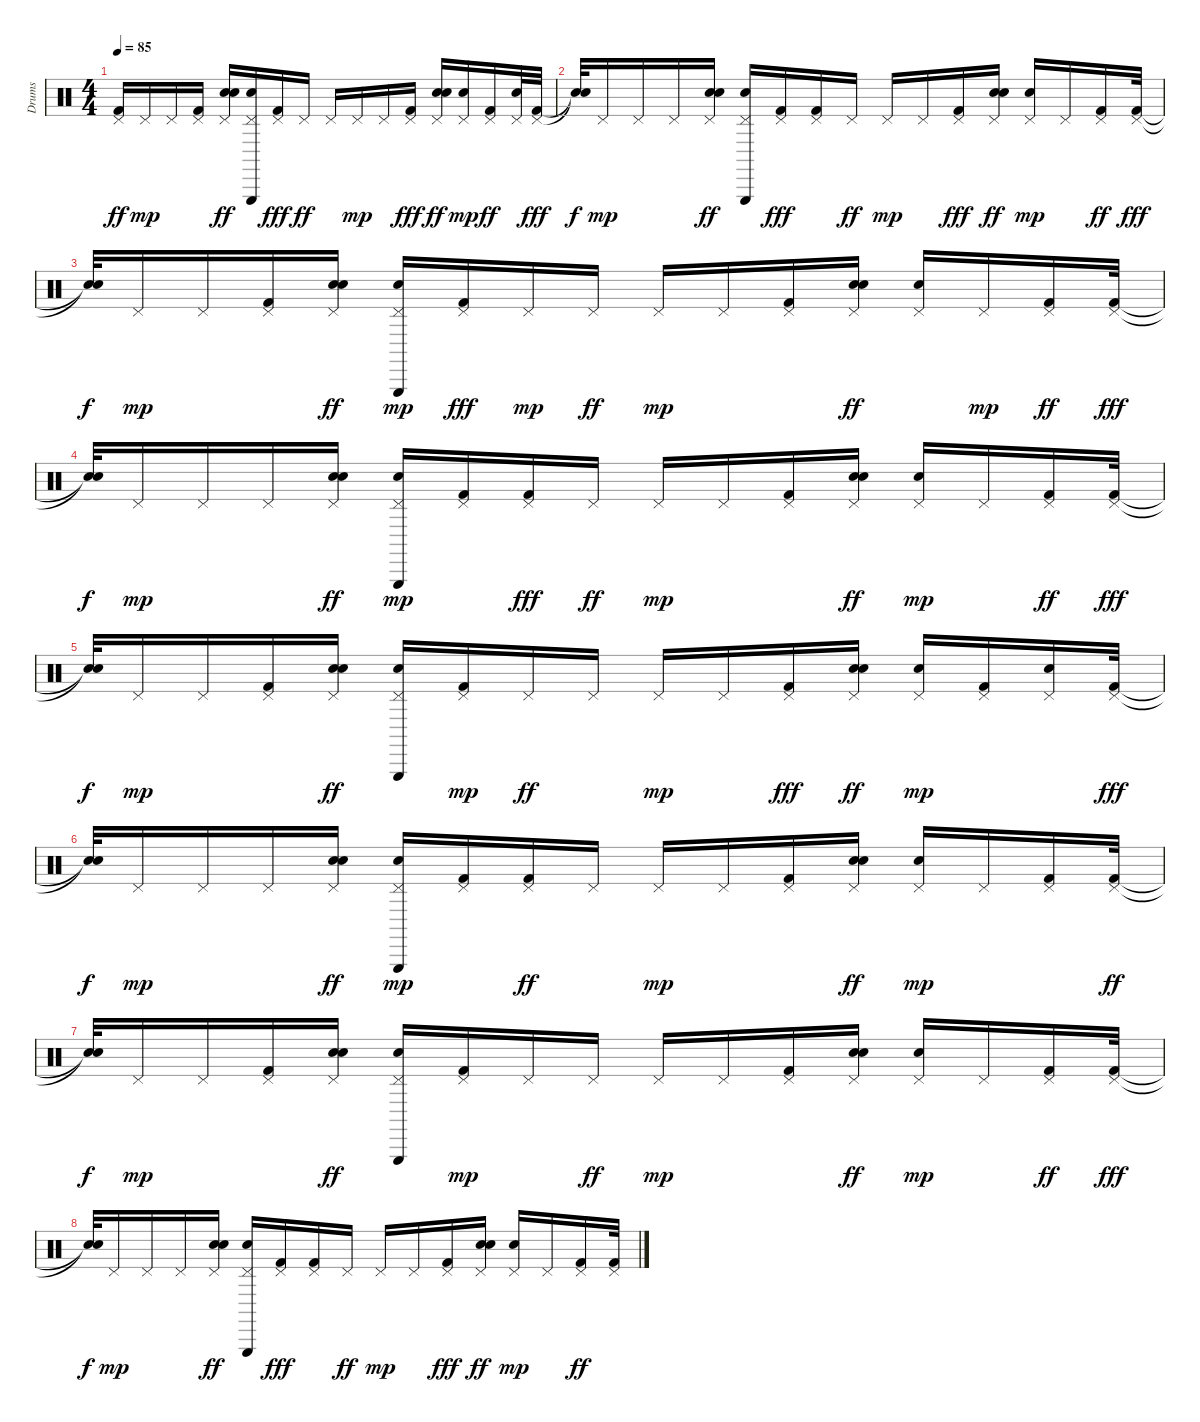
\track ("Drums" "Drums") {instrument percussion}
\staff {score}
\articulation defaults
\ts (4 4)
\tempo 85
\clef neutral
\ks c
("Kick (hit) 2" "Pedal Hi-Hat (hit)").16{dy ff} "Pedal Hi-Hat (hit)".16{dy mp} "Pedal Hi-Hat (hit)".16 ("Kick (hit) 2" "Pedal Hi-Hat (hit)").16 ("Pedal Hi-Hat (hit)" "Snare (hit) 2" "Hand Clap (hit)").16{dy ff} ("Triangle (hit)" "Pedal Hi-Hat (hit)" "Snare (hit) 2").16 ("Pedal Hi-Hat (hit)" "Kick (hit) 2").16{dy fff} "Pedal Hi-Hat (hit)".16{dy ff} "Pedal Hi-Hat (hit)".16 "Pedal Hi-Hat (hit)".16{dy mp} "Pedal Hi-Hat (hit)".16 ("Pedal Hi-Hat (hit)" "Kick (hit) 2").16{dy fff} ("Hand Clap (hit)" "Snare (hit) 2" "Pedal Hi-Hat (hit)").16{dy ff} ("Snare (hit) 2" "Pedal Hi-Hat (hit)").16{dy mp} ("Pedal Hi-Hat (hit)" "Kick (hit) 2").16{dy ff} ("Pedal Hi-Hat (hit)" "Snare (hit) 2").32 ("Pedal Hi-Hat (hit)" "Kick (hit) 2").32{dy fff} |
("Snare (hit)"{t} "Snare (hit)"{t}).32{dy f} "Pedal Hi-Hat (hit)".16{dy mp} "Pedal Hi-Hat (hit)".16 "Pedal Hi-Hat (hit)".16 ("Pedal Hi-Hat (hit)" "Hand Clap (hit)" "Snare (hit) 2").16{dy ff} ("Pedal Hi-Hat (hit)" "Triangle (hit)" "Snare (hit) 2").16 ("Pedal Hi-Hat (hit)" "Kick (hit) 2").16{dy fff} ("Pedal Hi-Hat (hit)" "Kick (hit) 2").16 "Pedal Hi-Hat (hit)".16{dy ff} "Pedal Hi-Hat (hit)".16{dy mp} "Pedal Hi-Hat (hit)".16 ("Pedal Hi-Hat (hit)" "Kick (hit) 2").16{dy fff} ("Snare (hit) 2" "Pedal Hi-Hat (hit)" "Hand Clap (hit)").16{dy ff} ("Snare (hit) 2" "Pedal Hi-Hat (hit)").16{dy mp} "Pedal Hi-Hat (hit)".16 ("Pedal Hi-Hat (hit)" "Kick (hit) 2").16{dy ff} ("Pedal Hi-Hat (hit)" "Kick (hit) 2").32{dy fff} |
("Snare (hit)"{t} "Snare (hit)"{t}).32{dy f} "Pedal Hi-Hat (hit)".16{dy mp} "Pedal Hi-Hat (hit)".16 ("Kick (hit) 2" "Pedal Hi-Hat (hit)").16 ("Hand Clap (hit)" "Pedal Hi-Hat (hit)" "Snare (hit) 2").16{dy ff} ("Triangle (hit)" "Snare (hit) 2" "Pedal Hi-Hat (hit)").16{dy mp} ("Pedal Hi-Hat (hit)" "Kick (hit) 2").16{dy fff} "Pedal Hi-Hat (hit)".16{dy mp} "Pedal Hi-Hat (hit)".16{dy ff} "Pedal Hi-Hat (hit)".16{dy mp} "Pedal Hi-Hat (hit)".16 ("Kick (hit) 2" "Pedal Hi-Hat (hit)").16 ("Hand Clap (hit)" "Pedal Hi-Hat (hit)" "Snare (hit) 2").16{dy ff} ("Pedal Hi-Hat (hit)" "Snare (hit) 2").16 "Pedal Hi-Hat (hit)".16{dy mp} ("Pedal Hi-Hat (hit)" "Kick (hit) 2").16{dy ff} ("Pedal Hi-Hat (hit)" "Kick (hit) 2").32{dy fff} |
("Snare (hit)"{t} "Snare (hit)"{t}).32{dy f} "Pedal Hi-Hat (hit)".16{dy mp} "Pedal Hi-Hat (hit)".16 "Pedal Hi-Hat (hit)".16 ("Snare (hit) 2" "Pedal Hi-Hat (hit)" "Hand Clap (hit)").16{dy ff} ("Snare (hit) 2" "Pedal Hi-Hat (hit)" "Triangle (hit)").16{dy mp} ("Kick (hit) 2" "Pedal Hi-Hat (hit)").16 ("Pedal Hi-Hat (hit)" "Kick (hit) 2").16{dy fff} "Pedal Hi-Hat (hit)".16{dy ff} "Pedal Hi-Hat (hit)".16{dy mp} "Pedal Hi-Hat (hit)".16 ("Kick (hit) 2" "Pedal Hi-Hat (hit)").16 ("Pedal Hi-Hat (hit)" "Snare (hit) 2" "Hand Clap (hit)").16{dy ff} ("Snare (hit) 2" "Pedal Hi-Hat (hit)").16{dy mp} "Pedal Hi-Hat (hit)".16 ("Pedal Hi-Hat (hit)" "Kick (hit) 2").16{dy ff} ("Pedal Hi-Hat (hit)" "Kick (hit) 2").32{dy fff} |
("Snare (hit)"{t} "Snare (hit)"{t}).32{dy f} "Pedal Hi-Hat (hit)".16{dy mp} "Pedal Hi-Hat (hit)".16 ("Kick (hit) 2" "Pedal Hi-Hat (hit)").16 ("Snare (hit) 2" "Pedal Hi-Hat (hit)" "Hand Clap (hit)").16{dy ff} ("Triangle (hit)" "Pedal Hi-Hat (hit)" "Snare (hit) 2").16 ("Kick (hit) 2" "Pedal Hi-Hat (hit)").16{dy mp} "Pedal Hi-Hat (hit)".16{dy ff} "Pedal Hi-Hat (hit)".16 "Pedal Hi-Hat (hit)".16{dy mp} "Pedal Hi-Hat (hit)".16 ("Pedal Hi-Hat (hit)" "Kick (hit) 2").16{dy fff} ("Hand Clap (hit)" "Snare (hit) 2" "Pedal Hi-Hat (hit)").16{dy ff} ("Snare (hit) 2" "Pedal Hi-Hat (hit)").16{dy mp} ("Kick (hit) 2" "Pedal Hi-Hat (hit)").16 ("Snare (hit) 2" "Pedal Hi-Hat (hit)").16 ("Pedal Hi-Hat (hit)" "Kick (hit) 2").32{dy fff} |
("Snare (hit)"{t} "Snare (hit)"{t}).32{dy f} "Pedal Hi-Hat (hit)".16{dy mp} "Pedal Hi-Hat (hit)".16 "Pedal Hi-Hat (hit)".16 ("Snare (hit) 2" "Hand Clap (hit)" "Pedal Hi-Hat (hit)").16{dy ff} ("Snare (hit) 2" "Triangle (hit)" "Pedal Hi-Hat (hit)").16{dy mp} ("Kick (hit) 2" "Pedal Hi-Hat (hit)").16 ("Kick (hit) 2" "Pedal Hi-Hat (hit)").16{dy ff} "Pedal Hi-Hat (hit)".16 "Pedal Hi-Hat (hit)".16{dy mp} "Pedal Hi-Hat (hit)".16 ("Kick (hit) 2" "Pedal Hi-Hat (hit)").16 ("Hand Clap (hit)" "Snare (hit) 2" "Pedal Hi-Hat (hit)").16{dy ff} ("Snare (hit) 2" "Pedal Hi-Hat (hit)").16{dy mp} "Pedal Hi-Hat (hit)".16 ("Kick (hit) 2" "Pedal Hi-Hat (hit)").16 ("Kick (hit) 2" "Pedal Hi-Hat (hit)").32{dy ff} |
("Snare (hit)"{t} "Snare (hit)"{t}).32{dy f} "Pedal Hi-Hat (hit)".16{dy mp} "Pedal Hi-Hat (hit)".16 ("Kick (hit) 2" "Pedal Hi-Hat (hit)").16 ("Pedal Hi-Hat (hit)" "Hand Clap (hit)" "Snare (hit) 2").16{dy ff} ("Pedal Hi-Hat (hit)" "Triangle (hit)" "Snare (hit) 2").16 ("Kick (hit) 2" "Pedal Hi-Hat (hit)").16{dy mp} "Pedal Hi-Hat (hit)".16 "Pedal Hi-Hat (hit)".16{dy ff} "Pedal Hi-Hat (hit)".16{dy mp} "Pedal Hi-Hat (hit)".16 ("Kick (hit) 2" "Pedal Hi-Hat (hit)").16 ("Hand Clap (hit)" "Snare (hit) 2" "Pedal Hi-Hat (hit)").16{dy ff} ("Snare (hit) 2" "Pedal Hi-Hat (hit)").16{dy mp} "Pedal Hi-Hat (hit)".16 ("Pedal Hi-Hat (hit)" "Kick (hit) 2").16{dy ff} ("Pedal Hi-Hat (hit)" "Kick (hit) 2").32{dy fff} |
("Snare (hit)"{t} "Snare (hit)"{t}).32{dy f} "Pedal Hi-Hat (hit)".16{dy mp} "Pedal Hi-Hat (hit)".16 "Pedal Hi-Hat (hit)".16 ("Pedal Hi-Hat (hit)" "Hand Clap (hit)" "Snare (hit) 2").16{dy ff} ("Triangle (hit)" "Pedal Hi-Hat (hit)" "Snare (hit) 2").16 ("Pedal Hi-Hat (hit)" "Kick (hit) 2").16{dy fff} ("Pedal Hi-Hat (hit)" "Kick (hit) 2").16 "Pedal Hi-Hat (hit)".16{dy ff} "Pedal Hi-Hat (hit)".16{dy mp} "Pedal Hi-Hat (hit)".16 ("Pedal Hi-Hat (hit)" "Kick (hit) 2").16{dy fff} ("Snare (hit) 2" "Pedal Hi-Hat (hit)" "Hand Clap (hit)").16{dy ff} ("Snare (hit) 2" "Pedal Hi-Hat (hit)").16{dy mp} "Pedal Hi-Hat (hit)".16 ("Pedal Hi-Hat (hit)" "Kick (hit) 2").16{dy ff} ("Kick (hit) 2" "Pedal Hi-Hat (hit)").32
